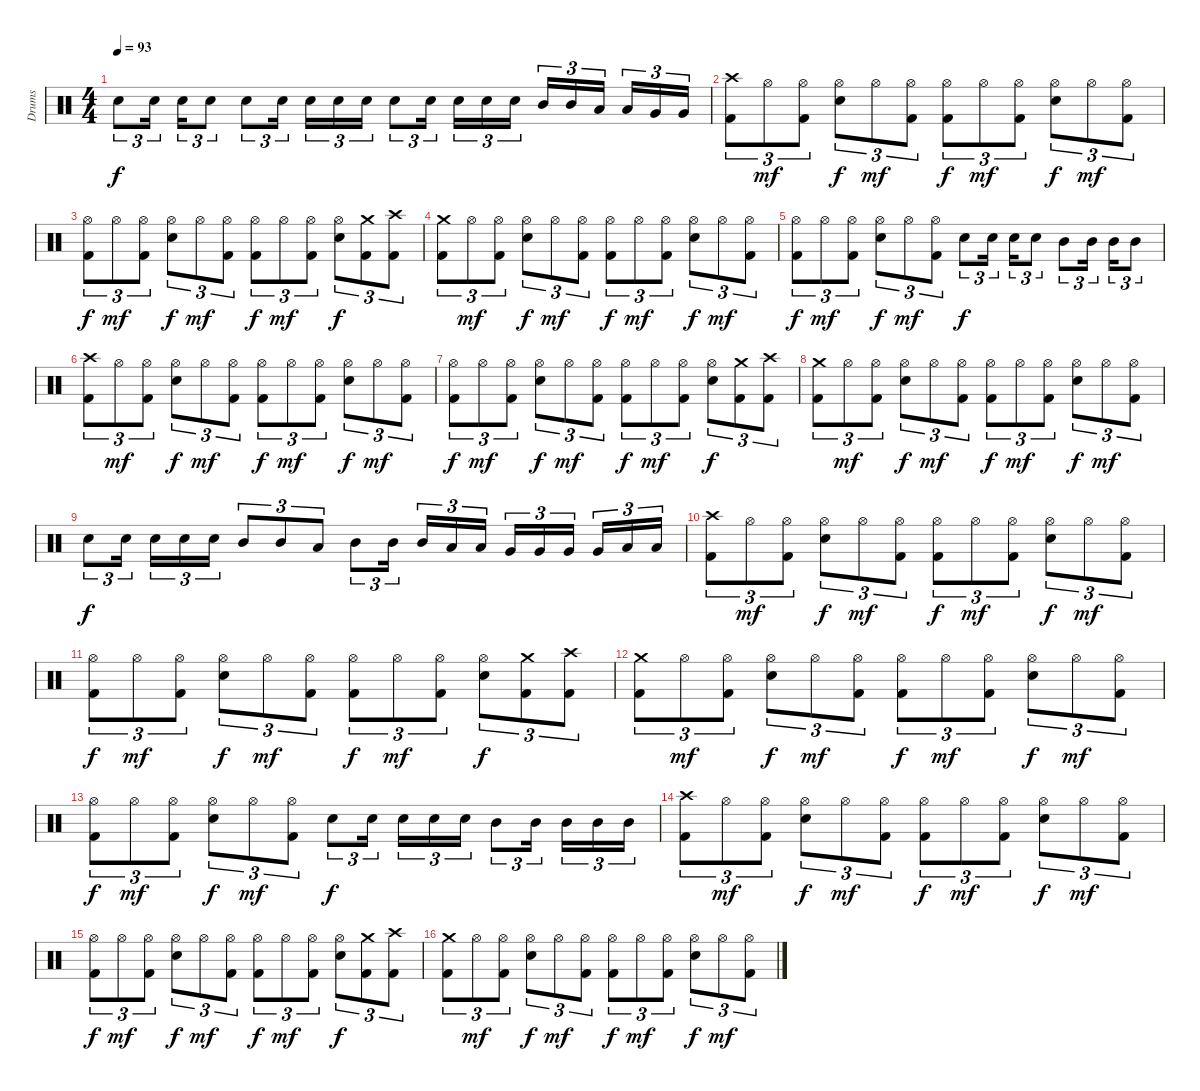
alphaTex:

\track ("Drums" "Drums") {instrument percussion}
\staff {score}
\articulation defaults
\ts (4 4)
\tempo 93
\clef neutral
\ks c "Snare (hit) 2".8{tu (3 2) dy f} "Snare (hit) 2".16{tu (3 2)} "Snare (hit) 2".16{tu (3 2)} "Snare (hit) 2".8{tu (3 2)} "Snare (hit) 2".8{tu (3 2)} "Snare (hit) 2".16{tu (3 2)} "Snare (hit) 2".16{tu (3 2)} "Snare (hit) 2".16{tu (3 2)} "Snare (hit) 2".16{tu (3 2)} "Snare (hit) 2".8{tu (3 2)} "Snare (hit) 2".16{tu (3 2)} "Snare (hit) 2".16{tu (3 2)} "Snare (hit) 2".16{tu (3 2)} "Snare (hit) 2".16{tu (3 2)} "Mid Tom (hit)".16{tu (3 2)} "Mid Tom (hit)".16{tu (3 2)} "Low Tom (hit)".16{tu (3 2)} "Low Tom (hit)".16{tu (3 2)} "Very Low Tom (hit)".16{tu (3 2)} "Very Low Tom (hit)".16{tu (3 2)}
|
("Crash high (hit)" "Kick (hit) 2").8{tu (3 2)} "Hi-Hat (open)".8{tu (3 2) dy mf} ("Hi-Hat (open)" "Kick (hit) 2").8{tu (3 2)} ("Hi-Hat (open)" "Snare (hit) 2").8{tu (3 2) dy f} "Hi-Hat (open)".8{tu (3 2) dy mf} ("Hi-Hat (open)" "Kick (hit) 2").8{tu (3 2)} ("Hi-Hat (open)" "Kick (hit) 2").8{tu (3 2) dy f} "Hi-Hat (open)".8{tu (3 2) dy mf} ("Hi-Hat (open)" "Kick (hit) 2").8{tu (3 2)} ("Hi-Hat (open)" "Snare (hit) 2").8{tu (3 2) dy f} "Hi-Hat (open)".8{tu (3 2) dy mf} ("Hi-Hat (open)" "Kick (hit) 2").8{tu (3 2)} |
("Hi-Hat (open)" "Kick (hit) 2").8{tu (3 2) dy f} "Hi-Hat (open)".8{tu (3 2) dy mf} ("Hi-Hat (open)" "Kick (hit) 2").8{tu (3 2)} ("Hi-Hat (open)" "Snare (hit) 2").8{tu (3 2) dy f} "Hi-Hat (open)".8{tu (3 2) dy mf} ("Hi-Hat (open)" "Kick (hit) 2").8{tu (3 2)} ("Hi-Hat (open)" "Kick (hit) 2").8{tu (3 2) dy f} "Hi-Hat (open)".8{tu (3 2) dy mf} ("Hi-Hat (open)" "Kick (hit) 2").8{tu (3 2)} ("Hi-Hat (open)" "Snare (hit) 2").8{tu (3 2) dy f} ("Crash medium (hit)" "Kick (hit) 2").8{tu (3 2)} ("Crash high (hit)" "Kick (hit) 2").8{tu (3 2)} |
("Crash medium (hit)" "Kick (hit) 2").8{tu (3 2)} "Hi-Hat (open)".8{tu (3 2) dy mf} ("Hi-Hat (open)" "Kick (hit) 2").8{tu (3 2)} ("Hi-Hat (open)" "Snare (hit) 2").8{tu (3 2) dy f} "Hi-Hat (open)".8{tu (3 2) dy mf} ("Hi-Hat (open)" "Kick (hit) 2").8{tu (3 2)} ("Hi-Hat (open)" "Kick (hit) 2").8{tu (3 2) dy f} "Hi-Hat (open)".8{tu (3 2) dy mf} ("Hi-Hat (open)" "Kick (hit) 2").8{tu (3 2)} ("Hi-Hat (open)" "Snare (hit) 2").8{tu (3 2) dy f} "Hi-Hat (open)".8{tu (3 2) dy mf} ("Hi-Hat (open)" "Kick (hit) 2").8{tu (3 2)} |
("Hi-Hat (open)" "Kick (hit) 2").8{tu (3 2) dy f} "Hi-Hat (open)".8{tu (3 2) dy mf} ("Hi-Hat (open)" "Kick (hit) 2").8{tu (3 2)} ("Hi-Hat (open)" "Snare (hit) 2").8{tu (3 2) dy f} "Hi-Hat (open)".8{tu (3 2) dy mf} ("Hi-Hat (open)" "Kick (hit) 2").8{tu (3 2)} "Snare (hit) 2".8{tu (3 2) dy f} "Snare (hit) 2".16{tu (3 2)} "Snare (hit) 2".16{tu (3 2)} "Snare (hit) 2".8{tu (3 2)} "Mid Tom (hit)".8{tu (3 2)} "Mid Tom (hit)".16{tu (3 2)} "Mid Tom (hit)".16{tu (3 2)} "Mid Tom (hit)".8{tu (3 2)} |
("Crash high (hit)" "Kick (hit) 2").8{tu (3 2)} "Hi-Hat (open)".8{tu (3 2) dy mf} ("Hi-Hat (open)" "Kick (hit) 2").8{tu (3 2)} ("Hi-Hat (open)" "Snare (hit) 2").8{tu (3 2) dy f} "Hi-Hat (open)".8{tu (3 2) dy mf} ("Hi-Hat (open)" "Kick (hit) 2").8{tu (3 2)} ("Hi-Hat (open)" "Kick (hit) 2").8{tu (3 2) dy f} "Hi-Hat (open)".8{tu (3 2) dy mf} ("Hi-Hat (open)" "Kick (hit) 2").8{tu (3 2)} ("Hi-Hat (open)" "Snare (hit) 2").8{tu (3 2) dy f} "Hi-Hat (open)".8{tu (3 2) dy mf} ("Hi-Hat (open)" "Kick (hit) 2").8{tu (3 2)} |
("Hi-Hat (open)" "Kick (hit) 2").8{tu (3 2) dy f} "Hi-Hat (open)".8{tu (3 2) dy mf} ("Hi-Hat (open)" "Kick (hit) 2").8{tu (3 2)} ("Hi-Hat (open)" "Snare (hit) 2").8{tu (3 2) dy f} "Hi-Hat (open)".8{tu (3 2) dy mf} ("Hi-Hat (open)" "Kick (hit) 2").8{tu (3 2)} ("Hi-Hat (open)" "Kick (hit) 2").8{tu (3 2) dy f} "Hi-Hat (open)".8{tu (3 2) dy mf} ("Hi-Hat (open)" "Kick (hit) 2").8{tu (3 2)} ("Hi-Hat (open)" "Snare (hit) 2").8{tu (3 2) dy f} ("Crash medium (hit)" "Kick (hit) 2").8{tu (3 2)} ("Crash high (hit)" "Kick (hit) 2").8{tu (3 2)} |
("Crash medium (hit)" "Kick (hit) 2").8{tu (3 2)} "Hi-Hat (open)".8{tu (3 2) dy mf} ("Hi-Hat (open)" "Kick (hit) 2").8{tu (3 2)} ("Hi-Hat (open)" "Snare (hit) 2").8{tu (3 2) dy f} "Hi-Hat (open)".8{tu (3 2) dy mf} ("Hi-Hat (open)" "Kick (hit) 2").8{tu (3 2)} ("Hi-Hat (open)" "Kick (hit) 2").8{tu (3 2) dy f} "Hi-Hat (open)".8{tu (3 2) dy mf} ("Hi-Hat (open)" "Kick (hit) 2").8{tu (3 2)} ("Hi-Hat (open)" "Snare (hit) 2").8{tu (3 2) dy f} "Hi-Hat (open)".8{tu (3 2) dy mf} ("Hi-Hat (open)" "Kick (hit) 2").8{tu (3 2)} |
"Snare (hit) 2".8{tu (3 2) dy f} "Snare (hit) 2".16{tu (3 2)} "Snare (hit) 2".16{tu (3 2)} "Snare (hit) 2".16{tu (3 2)} "Snare (hit) 2".16{tu (3 2)} "Mid Tom (hit)".8{tu (3 2)} "Mid Tom (hit)".8{tu (3 2)} "Low Tom (hit)".8{tu (3 2)} "Mid Tom (hit)".8{tu (3 2)} "Mid Tom (hit)".16{tu (3 2)} "Mid Tom (hit)".16{tu (3 2)} "Low Tom (hit)".16{tu (3 2)} "Low Tom (hit)".16{tu (3 2)} "Very Low Tom (hit)".16{tu (3 2)} "Very Low Tom (hit)".16{tu (3 2)} "Very Low Tom (hit)".16{tu (3 2)} "Very Low Tom (hit)".16{tu (3 2)} "Low Floor Tom (hit)".16{tu (3 2)} "Low Floor Tom (hit)".16{tu (3 2)} |
("Crash high (hit)" "Kick (hit) 2").8{tu (3 2)} "Hi-Hat (open)".8{tu (3 2) dy mf} ("Hi-Hat (open)" "Kick (hit) 2").8{tu (3 2)} ("Hi-Hat (open)" "Snare (hit) 2").8{tu (3 2) dy f} "Hi-Hat (open)".8{tu (3 2) dy mf} ("Hi-Hat (open)" "Kick (hit) 2").8{tu (3 2)} ("Hi-Hat (open)" "Kick (hit) 2").8{tu (3 2) dy f} "Hi-Hat (open)".8{tu (3 2) dy mf} ("Hi-Hat (open)" "Kick (hit) 2").8{tu (3 2)} ("Hi-Hat (open)" "Snare (hit) 2").8{tu (3 2) dy f} "Hi-Hat (open)".8{tu (3 2) dy mf} ("Hi-Hat (open)" "Kick (hit) 2").8{tu (3 2)} |
("Hi-Hat (open)" "Kick (hit) 2").8{tu (3 2) dy f} "Hi-Hat (open)".8{tu (3 2) dy mf} ("Hi-Hat (open)" "Kick (hit) 2").8{tu (3 2)} ("Hi-Hat (open)" "Snare (hit) 2").8{tu (3 2) dy f} "Hi-Hat (open)".8{tu (3 2) dy mf} ("Hi-Hat (open)" "Kick (hit) 2").8{tu (3 2)} ("Hi-Hat (open)" "Kick (hit) 2").8{tu (3 2) dy f} "Hi-Hat (open)".8{tu (3 2) dy mf} ("Hi-Hat (open)" "Kick (hit) 2").8{tu (3 2)} ("Hi-Hat (open)" "Snare (hit) 2").8{tu (3 2) dy f} ("Crash medium (hit)" "Kick (hit) 2").8{tu (3 2)} ("Crash high (hit)" "Kick (hit) 2").8{tu (3 2)} |
("Crash medium (hit)" "Kick (hit) 2").8{tu (3 2)} "Hi-Hat (open)".8{tu (3 2) dy mf} ("Hi-Hat (open)" "Kick (hit) 2").8{tu (3 2)} ("Hi-Hat (open)" "Snare (hit) 2").8{tu (3 2) dy f} "Hi-Hat (open)".8{tu (3 2) dy mf} ("Hi-Hat (open)" "Kick (hit) 2").8{tu (3 2)} ("Hi-Hat (open)" "Kick (hit) 2").8{tu (3 2) dy f} "Hi-Hat (open)".8{tu (3 2) dy mf} ("Hi-Hat (open)" "Kick (hit) 2").8{tu (3 2)} ("Hi-Hat (open)" "Snare (hit) 2").8{tu (3 2) dy f} "Hi-Hat (open)".8{tu (3 2) dy mf} ("Hi-Hat (open)" "Kick (hit) 2").8{tu (3 2)} |
("Hi-Hat (open)" "Kick (hit) 2").8{tu (3 2) dy f} "Hi-Hat (open)".8{tu (3 2) dy mf} ("Hi-Hat (open)" "Kick (hit) 2").8{tu (3 2)} ("Hi-Hat (open)" "Snare (hit) 2").8{tu (3 2) dy f} "Hi-Hat (open)".8{tu (3 2) dy mf} ("Hi-Hat (open)" "Kick (hit) 2").8{tu (3 2)} "Snare (hit) 2".8{tu (3 2) dy f} "Snare (hit) 2".16{tu (3 2)} "Snare (hit) 2".16{tu (3 2)} "Snare (hit) 2".16{tu (3 2)} "Snare (hit) 2".16{tu (3 2)} "Mid Tom (hit)".8{tu (3 2)} "Mid Tom (hit)".16{tu (3 2)} "Mid Tom (hit)".16{tu (3 2)} "Mid Tom (hit)".16{tu (3 2)} "Mid Tom (hit)".16{tu (3 2)} |
("Crash high (hit)" "Kick (hit) 2").8{tu (3 2)} "Hi-Hat (open)".8{tu (3 2) dy mf} ("Hi-Hat (open)" "Kick (hit) 2").8{tu (3 2)} ("Hi-Hat (open)" "Snare (hit) 2").8{tu (3 2) dy f} "Hi-Hat (open)".8{tu (3 2) dy mf} ("Hi-Hat (open)" "Kick (hit) 2").8{tu (3 2)} ("Hi-Hat (open)" "Kick (hit) 2").8{tu (3 2) dy f} "Hi-Hat (open)".8{tu (3 2) dy mf} ("Hi-Hat (open)" "Kick (hit) 2").8{tu (3 2)} ("Hi-Hat (open)" "Snare (hit) 2").8{tu (3 2) dy f} "Hi-Hat (open)".8{tu (3 2) dy mf} ("Hi-Hat (open)" "Kick (hit) 2").8{tu (3 2)} |
("Hi-Hat (open)" "Kick (hit) 2").8{tu (3 2) dy f} "Hi-Hat (open)".8{tu (3 2) dy mf} ("Hi-Hat (open)" "Kick (hit) 2").8{tu (3 2)} ("Hi-Hat (open)" "Snare (hit) 2").8{tu (3 2) dy f} "Hi-Hat (open)".8{tu (3 2) dy mf} ("Hi-Hat (open)" "Kick (hit) 2").8{tu (3 2)} ("Hi-Hat (open)" "Kick (hit) 2").8{tu (3 2) dy f} "Hi-Hat (open)".8{tu (3 2) dy mf} ("Hi-Hat (open)" "Kick (hit) 2").8{tu (3 2)} ("Hi-Hat (open)" "Snare (hit) 2").8{tu (3 2) dy f} ("Crash medium (hit)" "Kick (hit) 2").8{tu (3 2)} ("Crash high (hit)" "Kick (hit) 2").8{tu (3 2)} |
("Crash medium (hit)" "Kick (hit) 2").8{tu (3 2)} "Hi-Hat (open)".8{tu (3 2) dy mf} ("Hi-Hat (open)" "Kick (hit) 2").8{tu (3 2)} ("Hi-Hat (open)" "Snare (hit) 2").8{tu (3 2) dy f} "Hi-Hat (open)".8{tu (3 2) dy mf} ("Hi-Hat (open)" "Kick (hit) 2").8{tu (3 2)} ("Hi-Hat (open)" "Kick (hit) 2").8{tu (3 2) dy f} "Hi-Hat (open)".8{tu (3 2) dy mf} ("Hi-Hat (open)" "Kick (hit) 2").8{tu (3 2)} ("Hi-Hat (open)" "Snare (hit) 2").8{tu (3 2) dy f} "Hi-Hat (open)".8{tu (3 2) dy mf} ("Hi-Hat (open)" "Kick (hit) 2").8{tu (3 2)}
